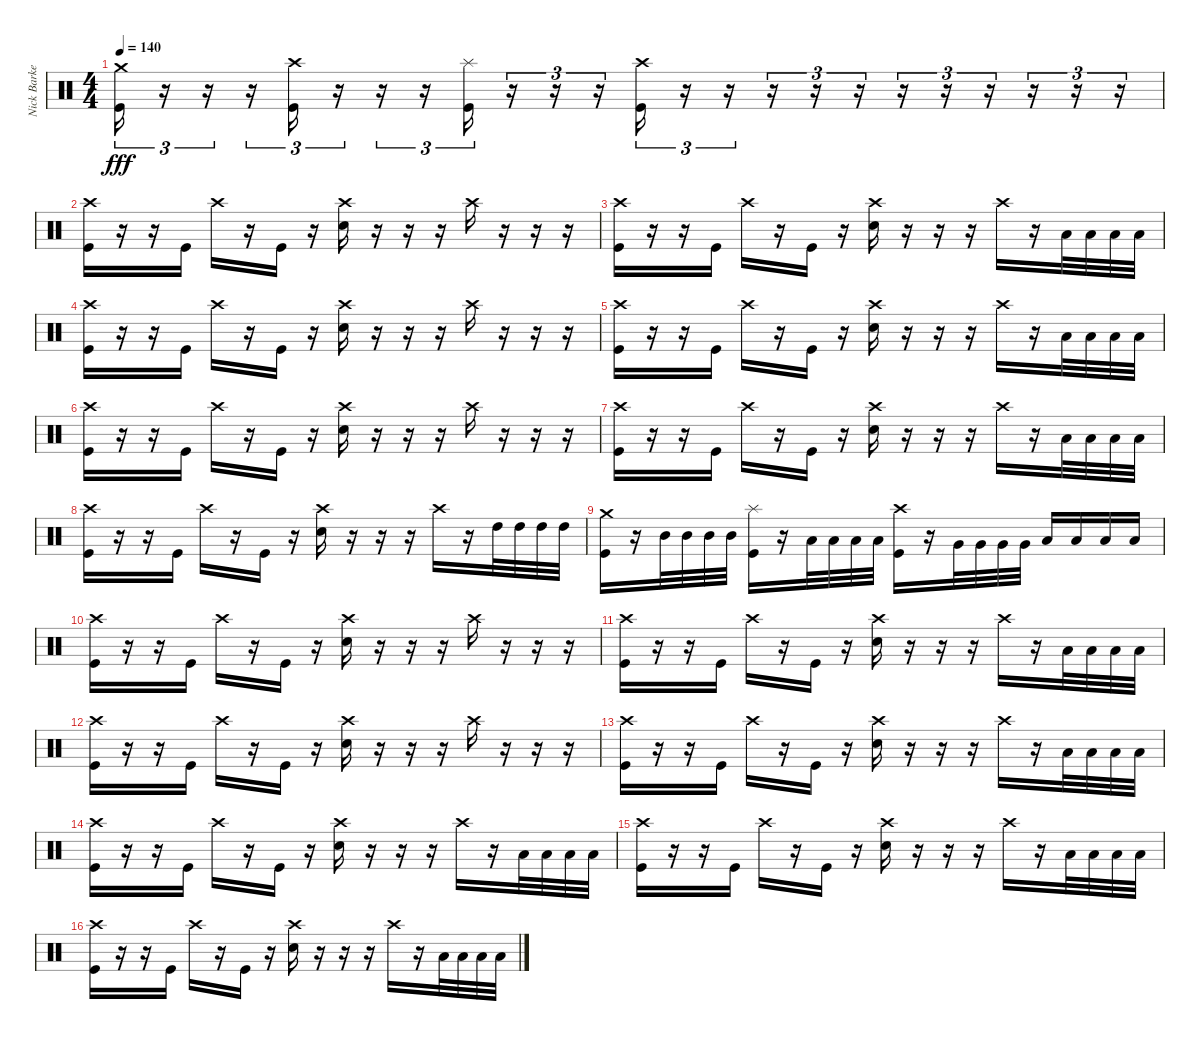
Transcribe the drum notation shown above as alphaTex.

\track ("Nick Barker" "Nick Barke") {instrument percussion}
\staff {score}
\articulation defaults
\ts (4 4)
\tempo 140
\clef neutral
\ks c
("Crash medium (hit)" "Kick (hit)").16{tu (3 2) dy fff} r.16{tu (3 2)} r.16{tu (3 2)} r.16{tu (3 2)} ("Crash high (hit)" "Kick (hit)").16{tu (3 2)} r.16{tu (3 2)} r.16{tu (3 2)} r.16{tu (3 2)} ("Splash (hit)" "Kick (hit)").16{tu (3 2)} r.16{tu (3 2)} r.16{tu (3 2)} r.16{tu (3 2)} ("Crash high (hit)" "Kick (hit)").16{tu (3 2)} r.16{tu (3 2)} r.16{tu (3 2)} r.16{tu (3 2)} r.16{tu (3 2)} r.16{tu (3 2)} r.16{tu (3 2)} r.16{tu (3 2)} r.16{tu (3 2)} r.16{tu (3 2)} r.16{tu (3 2)} r.16{tu (3 2)} |
("Crash high (hit)" "Kick (hit)").16 r.16 r.16 "Kick (hit)".16 "Crash high (hit)".16 r.16 "Kick (hit)".16 r.16 ("Crash high (hit)" "Electric Snare (hit)").16 r.16 r.16 r.16 "Crash high (hit)".16 r.16 r.16 r.16 |
("Crash high (hit)" "Kick (hit)").16 r.16 r.16 "Kick (hit)".16 "Crash high (hit)".16 r.16 "Kick (hit)".16 r.16 ("Crash high (hit)" "Electric Snare (hit)").16 r.16 r.16 r.16 "Crash high (hit)".16 r.16 "Low Tom (hit)".32 "Low Tom (hit)".32 "Low Tom (hit)".32 "Low Tom (hit)".32 |
("Crash high (hit)" "Kick (hit)").16 r.16 r.16 "Kick (hit)".16 "Crash high (hit)".16 r.16 "Kick (hit)".16 r.16 ("Crash high (hit)" "Electric Snare (hit)").16 r.16 r.16 r.16 "Crash high (hit)".16 r.16 r.16 r.16 |
("Crash high (hit)" "Kick (hit)").16 r.16 r.16 "Kick (hit)".16 "Crash high (hit)".16 r.16 "Kick (hit)".16 r.16 ("Crash high (hit)" "Electric Snare (hit)").16 r.16 r.16 r.16 "Crash high (hit)".16 r.16 "Low Tom (hit)".32 "Low Tom (hit)".32 "Low Tom (hit)".32 "Low Tom (hit)".32 |
("Crash high (hit)" "Kick (hit)").16 r.16 r.16 "Kick (hit)".16 "Crash high (hit)".16 r.16 "Kick (hit)".16 r.16 ("Crash high (hit)" "Electric Snare (hit)").16 r.16 r.16 r.16 "Crash high (hit)".16 r.16 r.16 r.16 |
("Crash high (hit)" "Kick (hit)").16 r.16 r.16 "Kick (hit)".16 "Crash high (hit)".16 r.16 "Kick (hit)".16 r.16 ("Crash high (hit)" "Electric Snare (hit)").16 r.16 r.16 r.16 "Crash high (hit)".16 r.16 "Low Tom (hit)".32 "Low Tom (hit)".32 "Low Tom (hit)".32 "Low Tom (hit)".32 |
("Crash high (hit)" "Kick (hit)").16 r.16 r.16 "Kick (hit)".16 "Crash high (hit)".16 r.16 "Kick (hit)".16 r.16 ("Crash high (hit)" "Electric Snare (hit)").16 r.16 r.16 r.16 "Crash high (hit)".16 r.16 "High Tom (hit)".32 "High Tom (hit)".32 "High Tom (hit)".32 "High Tom (hit)".32 |
("Crash medium (hit)" "Kick (hit)").16 r.16 "Mid Tom (hit)".32 "Mid Tom (hit)".32 "Mid Tom (hit)".32 "Mid Tom (hit)".32 ("Splash (hit)" "Kick (hit)").16 r.16 "Low Tom (hit)".32 "Low Tom (hit)".32 "Low Tom (hit)".32 "Low Tom (hit)".32 ("Crash high (hit)" "Kick (hit)").16 r.16 "Very Low Tom (hit)".32 "Very Low Tom (hit)".32 "Very Low Tom (hit)".32 "Very Low Tom (hit)".32 "Low Floor Tom (hit)".16 "Low Floor Tom (hit)".16 "Low Floor Tom (hit)".16 "Low Floor Tom (hit)".16 |
("Crash high (hit)" "Kick (hit)").16 r.16 r.16 "Kick (hit)".16 "Crash high (hit)".16 r.16 "Kick (hit)".16 r.16 ("Crash high (hit)" "Electric Snare (hit)").16 r.16 r.16 r.16 "Crash high (hit)".16 r.16 r.16 r.16 |
("Crash high (hit)" "Kick (hit)").16 r.16 r.16 "Kick (hit)".16 "Crash high (hit)".16 r.16 "Kick (hit)".16 r.16 ("Crash high (hit)" "Electric Snare (hit)").16 r.16 r.16 r.16 "Crash high (hit)".16 r.16 "Low Tom (hit)".32 "Low Tom (hit)".32 "Low Tom (hit)".32 "Low Tom (hit)".32 |
("Crash high (hit)" "Kick (hit)").16 r.16 r.16 "Kick (hit)".16 "Crash high (hit)".16 r.16 "Kick (hit)".16 r.16 ("Crash high (hit)" "Electric Snare (hit)").16 r.16 r.16 r.16 "Crash high (hit)".16 r.16 r.16 r.16 |
("Crash high (hit)" "Kick (hit)").16 r.16 r.16 "Kick (hit)".16 "Crash high (hit)".16 r.16 "Kick (hit)".16 r.16 ("Crash high (hit)" "Electric Snare (hit)").16 r.16 r.16 r.16 "Crash high (hit)".16 r.16 "Low Tom (hit)".32 "Low Tom (hit)".32 "Low Tom (hit)".32 "Low Tom (hit)".32 |
("Crash high (hit)" "Kick (hit)").16 r.16 r.16 "Kick (hit)".16 "Crash high (hit)".16 r.16 "Kick (hit)".16 r.16 ("Crash high (hit)" "Electric Snare (hit)").16 r.16 r.16 r.16 "Crash high (hit)".16 r.16 "Low Tom (hit)".32 "Low Tom (hit)".32 "Low Tom (hit)".32 "Low Tom (hit)".32 |
("Crash high (hit)" "Kick (hit)").16 r.16 r.16 "Kick (hit)".16 "Crash high (hit)".16 r.16 "Kick (hit)".16 r.16 ("Crash high (hit)" "Electric Snare (hit)").16 r.16 r.16 r.16 "Crash high (hit)".16 r.16 "Low Tom (hit)".32 "Low Tom (hit)".32 "Low Tom (hit)".32 "Low Tom (hit)".32 |
("Crash high (hit)" "Kick (hit)").16 r.16 r.16 "Kick (hit)".16 "Crash high (hit)".16 r.16 "Kick (hit)".16 r.16 ("Crash high (hit)" "Electric Snare (hit)").16 r.16 r.16 r.16 "Crash high (hit)".16 r.16 "Low Tom (hit)".32 "Low Tom (hit)".32 "Low Tom (hit)".32 "Low Tom (hit)".32
